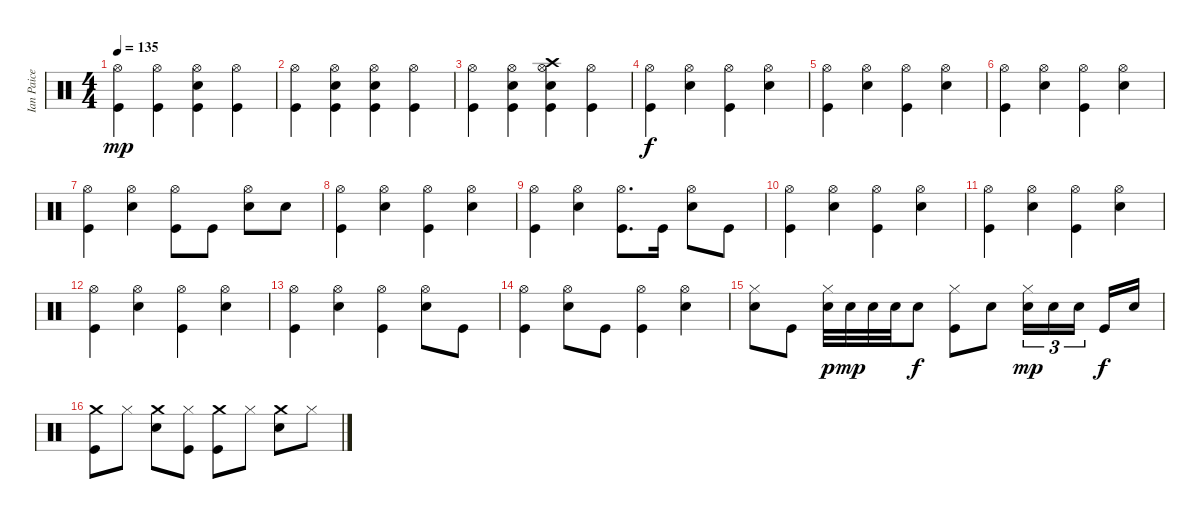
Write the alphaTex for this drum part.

\track ("Ian Paice" "Ian Paice") {instrument percussion}
\staff {score}
\articulation defaults
\ts (4 4)
\tempo 135
\clef neutral
\ks c
("Hi-Hat (open)" "Kick (hit)").4{dy mp} ("Hi-Hat (open)" "Kick (hit)").4 ("Hi-Hat (open)" "Electric Snare (hit)" "Kick (hit)").4 ("Hi-Hat (open)" "Kick (hit)").4 |
("Hi-Hat (open)" "Kick (hit)").4 ("Hi-Hat (open)" "Electric Snare (hit)" "Kick (hit)").4 ("Hi-Hat (open)" "Electric Snare (hit)" "Kick (hit)").4 ("Hi-Hat (open)" "Kick (hit)").4 |
("Hi-Hat (open)" "Kick (hit)").4 ("Hi-Hat (open)" "Electric Snare (hit)" "Kick (hit)").4 ("Crash high (hit)" "Hi-Hat (open)" "Electric Snare (hit)" "Kick (hit)").4 ("Hi-Hat (open)" "Kick (hit)").4 |
("Hi-Hat (open)" "Kick (hit)").4{dy f} ("Hi-Hat (open)" "Electric Snare (hit)").4 ("Hi-Hat (open)" "Kick (hit)").4 ("Hi-Hat (open)" "Electric Snare (hit)").4 |
("Hi-Hat (open)" "Kick (hit)").4 ("Hi-Hat (open)" "Electric Snare (hit)").4 ("Hi-Hat (open)" "Kick (hit)").4 ("Hi-Hat (open)" "Electric Snare (hit)").4 |
("Hi-Hat (open)" "Kick (hit)").4 ("Hi-Hat (open)" "Electric Snare (hit)").4 ("Hi-Hat (open)" "Kick (hit)").4 ("Hi-Hat (open)" "Electric Snare (hit)").4 |
("Hi-Hat (open)" "Kick (hit)").4 ("Hi-Hat (open)" "Electric Snare (hit)").4 ("Hi-Hat (open)" "Kick (hit)").8 "Kick (hit)".8 ("Hi-Hat (open)" "Electric Snare (hit)").8 "Electric Snare (hit)".8 |
("Hi-Hat (open)" "Kick (hit)").4 ("Hi-Hat (open)" "Electric Snare (hit)").4 ("Hi-Hat (open)" "Kick (hit)").4 ("Hi-Hat (open)" "Electric Snare (hit)").4 |
("Hi-Hat (open)" "Kick (hit)").4 ("Hi-Hat (open)" "Electric Snare (hit)").4 ("Hi-Hat (open)" "Kick (hit)").8{d} "Kick (hit)".16 ("Hi-Hat (open)" "Electric Snare (hit)").8 "Kick (hit)".8 |
("Hi-Hat (open)" "Kick (hit)").4 ("Hi-Hat (open)" "Electric Snare (hit)").4 ("Hi-Hat (open)" "Kick (hit)").4 ("Hi-Hat (open)" "Electric Snare (hit)").4 |
("Hi-Hat (open)" "Kick (hit)").4 ("Hi-Hat (open)" "Electric Snare (hit)").4 ("Hi-Hat (open)" "Kick (hit)").4 ("Hi-Hat (open)" "Electric Snare (hit)").4 |
("Hi-Hat (open)" "Kick (hit)").4 ("Hi-Hat (open)" "Electric Snare (hit)").4 ("Hi-Hat (open)" "Kick (hit)").4 ("Hi-Hat (open)" "Electric Snare (hit)").4 |
("Hi-Hat (open)" "Kick (hit)").4 ("Hi-Hat (open)" "Electric Snare (hit)").4 ("Hi-Hat (open)" "Kick (hit)").4 ("Hi-Hat (open)" "Electric Snare (hit)").8 "Kick (hit)".8 |
("Hi-Hat (open)" "Kick (hit)").4 ("Hi-Hat (open)" "Electric Snare (hit)").8 "Kick (hit)".8 ("Hi-Hat (open)" "Kick (hit)").4 ("Hi-Hat (open)" "Electric Snare (hit)").4 |
("Hi-Hat (closed)" "Electric Snare (hit)").8 "Kick (hit)".8 ("Hi-Hat (closed)" "Electric Snare (hit)").32{dy p} "Electric Snare (hit)".32{dy mp} "Electric Snare (hit)".32 "Electric Snare (hit)".32 "Electric Snare (hit)".8{dy f} ("Hi-Hat (closed)" "Kick (hit)").8 "Electric Snare (hit)".8 ("Hi-Hat (closed)" "Electric Snare (hit)").16{tu (3 2) dy mp} "Electric Snare (hit)".16{tu (3 2)} "Electric Snare (hit)".16{tu (3 2)} "Kick (hit)".16{dy f} "Electric Snare (hit)".16 |
("Crash medium (hit)" "Kick (hit)").8 "Hi-Hat (closed)".8 ("Crash medium (hit)" "Electric Snare (hit)").8 ("Hi-Hat (closed)" "Kick (hit)").8 ("Crash medium (hit)" "Kick (hit)").8 "Hi-Hat (closed)".8 ("Crash medium (hit)" "Electric Snare (hit)").8 "Hi-Hat (closed)".8
